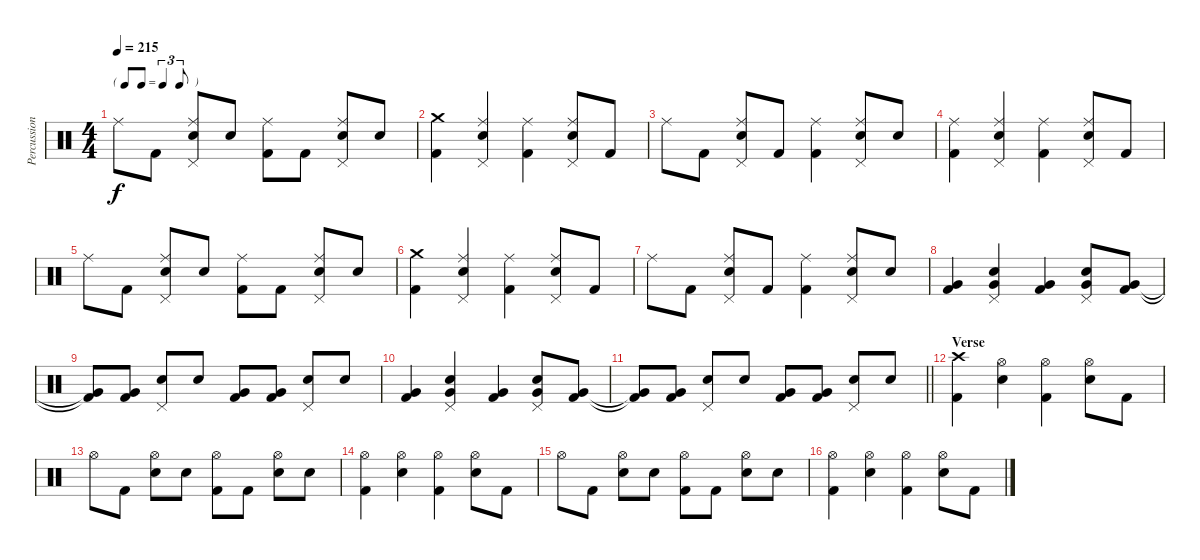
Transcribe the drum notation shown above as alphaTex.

\track ("Percussion" "Percussion") {instrument percussion}
\staff {score}
\articulation defaults
\ts (4 4)
\tf triplet8th
\tempo 215
\clef neutral
\ks c "Ride (middle)".8{dy f} "Kick (hit) 2".8
("Ride (middle)" "Snare (hit) 2" "Pedal Hi-Hat (hit)").8 "Snare (hit) 2".8 ("Ride (middle)" "Kick (hit) 2").8 "Kick (hit) 2".8 ("Ride (middle)" "Snare (hit) 2" "Pedal Hi-Hat (hit)").8 "Snare (hit) 2".8 |
("Crash medium (hit)" "Kick (hit) 2").4 ("Ride (middle)" "Snare (hit) 2" "Pedal Hi-Hat (hit)").4 ("Ride (middle)" "Kick (hit) 2").4 ("Ride (middle)" "Snare (hit) 2" "Pedal Hi-Hat (hit)").8 "Kick (hit) 2".8 |
"Ride (middle)".8 "Kick (hit) 2".8 ("Ride (middle)" "Snare (hit) 2" "Pedal Hi-Hat (hit)").8 "Kick (hit) 2".8 ("Ride (middle)" "Kick (hit) 2").4 ("Ride (middle)" "Snare (hit) 2" "Pedal Hi-Hat (hit)").8 "Snare (hit) 2".8 |
("Ride (middle)" "Kick (hit) 2").4 ("Ride (middle)" "Snare (hit) 2" "Pedal Hi-Hat (hit)").4 ("Ride (middle)" "Kick (hit) 2").4 ("Ride (middle)" "Snare (hit) 2" "Pedal Hi-Hat (hit)").8 "Kick (hit) 2".8 |
"Ride (middle)".8 "Kick (hit) 2".8 ("Ride (middle)" "Snare (hit) 2" "Pedal Hi-Hat (hit)").8 "Snare (hit) 2".8 ("Ride (middle)" "Kick (hit) 2").8 "Kick (hit) 2".8 ("Ride (middle)" "Snare (hit) 2" "Pedal Hi-Hat (hit)").8 "Snare (hit) 2".8 |
("Crash medium (hit)" "Kick (hit) 2").4 ("Ride (middle)" "Snare (hit) 2" "Pedal Hi-Hat (hit)").4 ("Ride (middle)" "Kick (hit) 2").4 ("Ride (middle)" "Snare (hit) 2" "Pedal Hi-Hat (hit)").8 "Kick (hit) 2".8 |
"Ride (middle)".8 "Kick (hit) 2".8 ("Ride (middle)" "Snare (hit) 2" "Pedal Hi-Hat (hit)").8 "Kick (hit) 2".8 ("Ride (middle)" "Kick (hit) 2").4 ("Ride (middle)" "Snare (hit) 2" "Pedal Hi-Hat (hit)").8 "Snare (hit) 2".8 |
("Very Low Tom (hit)" "Kick (hit) 2").4 ("Snare (hit) 2" "Very Low Tom (hit)" "Pedal Hi-Hat (hit)").4 ("Very Low Tom (hit)" "Kick (hit) 2").4 ("Snare (hit) 2" "Very Low Tom (hit)" "Pedal Hi-Hat (hit)").8 ("Very Low Tom (hit)" "Kick (hit) 2").8 |
("Very Low Tom (hit)"{t} "Kick (hit) 2"{t}).8 ("Very Low Tom (hit)" "Kick (hit) 2").8 ("Snare (hit) 2" "Pedal Hi-Hat (hit)").8 "Snare (hit) 2".8 ("Very Low Tom (hit)" "Kick (hit) 2").8 ("Very Low Tom (hit)" "Kick (hit) 2").8 ("Snare (hit) 2" "Pedal Hi-Hat (hit)").8 "Snare (hit) 2".8 |
("Very Low Tom (hit)" "Kick (hit) 2").4 ("Snare (hit) 2" "Very Low Tom (hit)" "Pedal Hi-Hat (hit)").4 ("Very Low Tom (hit)" "Kick (hit) 2").4 ("Snare (hit) 2" "Very Low Tom (hit)" "Pedal Hi-Hat (hit)").8 ("Very Low Tom (hit)" "Kick (hit) 2").8 |
\barLineRight lightlight
("Very Low Tom (hit)"{t} "Kick (hit) 2"{t}).8 ("Very Low Tom (hit)" "Kick (hit) 2").8 ("Snare (hit) 2" "Pedal Hi-Hat (hit)").8 "Snare (hit) 2".8 ("Very Low Tom (hit)" "Kick (hit) 2").8 ("Very Low Tom (hit)" "Kick (hit) 2").8 ("Snare (hit) 2" "Pedal Hi-Hat (hit)").8 "Snare (hit) 2".8 |
\section ("" "Verse")
("Crash high (hit)" "Kick (hit) 2").4 ("Hi-Hat (open)" "Snare (hit) 2").4 ("Hi-Hat (open)" "Kick (hit) 2").4 ("Hi-Hat (open)" "Snare (hit) 2").8 "Kick (hit) 2".8 |
"Hi-Hat (open)".8 "Kick (hit) 2".8 ("Hi-Hat (open)" "Snare (hit) 2").8 "Snare (hit) 2".8 ("Hi-Hat (open)" "Kick (hit) 2").8 "Kick (hit) 2".8 ("Hi-Hat (open)" "Snare (hit) 2").8 "Snare (hit) 2".8 |
("Hi-Hat (open)" "Kick (hit) 2").4 ("Hi-Hat (open)" "Snare (hit) 2").4 ("Hi-Hat (open)" "Kick (hit) 2").4 ("Hi-Hat (open)" "Snare (hit) 2").8 "Kick (hit) 2".8 |
"Hi-Hat (open)".8 "Kick (hit) 2".8 ("Hi-Hat (open)" "Snare (hit) 2").8 "Snare (hit) 2".8 ("Hi-Hat (open)" "Kick (hit) 2").8 "Kick (hit) 2".8 ("Hi-Hat (open)" "Snare (hit) 2").8 "Snare (hit) 2".8 |
("Hi-Hat (open)" "Kick (hit) 2").4 ("Hi-Hat (open)" "Snare (hit) 2").4 ("Hi-Hat (open)" "Kick (hit) 2").4 ("Hi-Hat (open)" "Snare (hit) 2").8 "Kick (hit) 2".8
